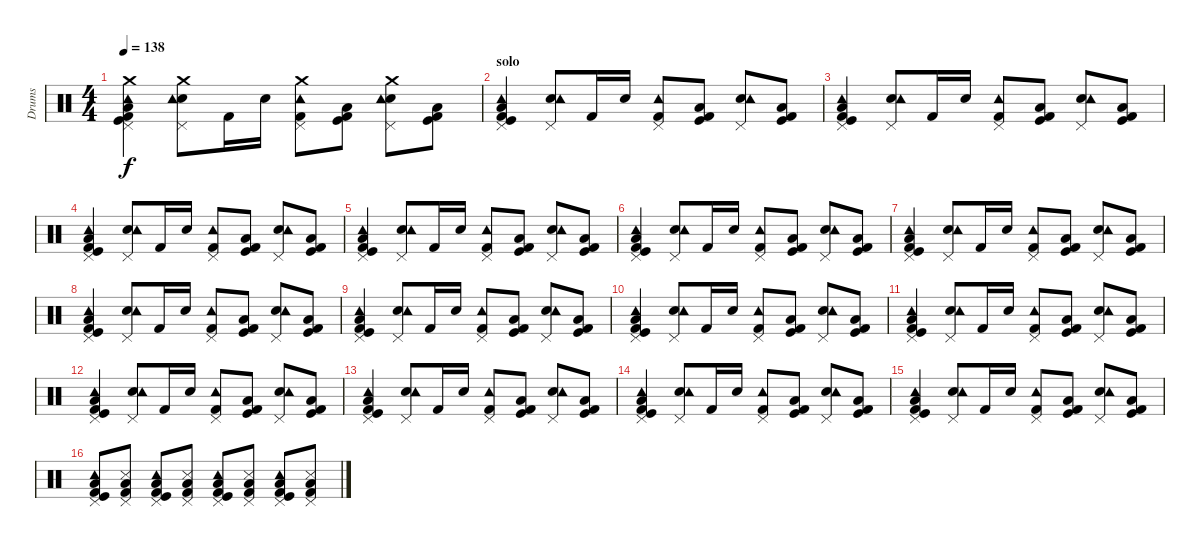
\track ("Drums" "Drums") {instrument percussion}
\staff {score}
\articulation defaults
\ts (4 4)
\tempo 138
\clef neutral
\ks c
("Crash medium (hit)" "Pedal Hi-Hat (hit)" "Kick (hit) 2" "Kick (hit)" "Low Floor Tom (hit)" "Tambourine (hit)").4{dy f} ("Crash medium (hit)" "Pedal Hi-Hat (hit)" "Electric Snare (hit)" "Tambourine (hit)").8 "Kick (hit) 2".16 "Electric Snare (hit)".16 ("Crash medium (hit)" "Pedal Hi-Hat (hit)" "Kick (hit) 2" "Tambourine (hit)").8 ("Kick (hit) 2" "Kick (hit)" "Low Floor Tom (hit)").8 ("Crash medium (hit)" "Pedal Hi-Hat (hit)" "Electric Snare (hit)" "Tambourine (hit)").8 ("Kick (hit) 2" "Low Floor Tom (hit)" "Kick (hit)").8 |
\section ("" "solo")
("Pedal Hi-Hat (hit)" "Kick (hit) 2" "Kick (hit)" "Low Floor Tom (hit)" "Tambourine (hit)").4 ("Pedal Hi-Hat (hit)" "Electric Snare (hit)" "Tambourine (hit)").8 "Kick (hit) 2".16 "Electric Snare (hit)".16 ("Pedal Hi-Hat (hit)" "Kick (hit) 2" "Tambourine (hit)").8 ("Kick (hit) 2" "Kick (hit)" "Low Floor Tom (hit)").8 ("Pedal Hi-Hat (hit)" "Electric Snare (hit)" "Tambourine (hit)").8 ("Kick (hit) 2" "Low Floor Tom (hit)" "Kick (hit)").8 |
("Pedal Hi-Hat (hit)" "Kick (hit) 2" "Kick (hit)" "Low Floor Tom (hit)" "Tambourine (hit)").4 ("Pedal Hi-Hat (hit)" "Electric Snare (hit)" "Tambourine (hit)").8 "Kick (hit) 2".16 "Electric Snare (hit)".16 ("Pedal Hi-Hat (hit)" "Kick (hit) 2" "Tambourine (hit)").8 ("Kick (hit) 2" "Kick (hit)" "Low Floor Tom (hit)").8 ("Pedal Hi-Hat (hit)" "Electric Snare (hit)" "Tambourine (hit)").8 ("Kick (hit) 2" "Low Floor Tom (hit)" "Kick (hit)").8 |
("Pedal Hi-Hat (hit)" "Kick (hit) 2" "Kick (hit)" "Low Floor Tom (hit)" "Tambourine (hit)").4 ("Pedal Hi-Hat (hit)" "Electric Snare (hit)" "Tambourine (hit)").8 "Kick (hit) 2".16 "Electric Snare (hit)".16 ("Pedal Hi-Hat (hit)" "Kick (hit) 2" "Tambourine (hit)").8 ("Kick (hit) 2" "Kick (hit)" "Low Floor Tom (hit)").8 ("Pedal Hi-Hat (hit)" "Electric Snare (hit)" "Tambourine (hit)").8 ("Kick (hit) 2" "Low Floor Tom (hit)" "Kick (hit)").8 |
("Pedal Hi-Hat (hit)" "Kick (hit) 2" "Kick (hit)" "Low Floor Tom (hit)" "Tambourine (hit)").4 ("Pedal Hi-Hat (hit)" "Electric Snare (hit)" "Tambourine (hit)").8 "Kick (hit) 2".16 "Electric Snare (hit)".16 ("Pedal Hi-Hat (hit)" "Kick (hit) 2" "Tambourine (hit)").8 ("Kick (hit) 2" "Kick (hit)" "Low Floor Tom (hit)").8 ("Pedal Hi-Hat (hit)" "Electric Snare (hit)" "Tambourine (hit)").8 ("Kick (hit) 2" "Low Floor Tom (hit)" "Kick (hit)").8 |
("Pedal Hi-Hat (hit)" "Kick (hit) 2" "Kick (hit)" "Low Floor Tom (hit)" "Tambourine (hit)").4 ("Pedal Hi-Hat (hit)" "Electric Snare (hit)" "Tambourine (hit)").8 "Kick (hit) 2".16 "Electric Snare (hit)".16 ("Pedal Hi-Hat (hit)" "Kick (hit) 2" "Tambourine (hit)").8 ("Kick (hit) 2" "Kick (hit)" "Low Floor Tom (hit)").8 ("Pedal Hi-Hat (hit)" "Electric Snare (hit)" "Tambourine (hit)").8 ("Kick (hit) 2" "Low Floor Tom (hit)" "Kick (hit)").8 |
("Pedal Hi-Hat (hit)" "Kick (hit) 2" "Kick (hit)" "Low Floor Tom (hit)" "Tambourine (hit)").4 ("Pedal Hi-Hat (hit)" "Electric Snare (hit)" "Tambourine (hit)").8 "Kick (hit) 2".16 "Electric Snare (hit)".16 ("Pedal Hi-Hat (hit)" "Kick (hit) 2" "Tambourine (hit)").8 ("Kick (hit) 2" "Kick (hit)" "Low Floor Tom (hit)").8 ("Pedal Hi-Hat (hit)" "Electric Snare (hit)" "Tambourine (hit)").8 ("Kick (hit) 2" "Low Floor Tom (hit)" "Kick (hit)").8 |
("Pedal Hi-Hat (hit)" "Kick (hit) 2" "Kick (hit)" "Low Floor Tom (hit)" "Tambourine (hit)").4 ("Pedal Hi-Hat (hit)" "Electric Snare (hit)" "Tambourine (hit)").8 "Kick (hit) 2".16 "Electric Snare (hit)".16 ("Pedal Hi-Hat (hit)" "Kick (hit) 2" "Tambourine (hit)").8 ("Kick (hit) 2" "Kick (hit)" "Low Floor Tom (hit)").8 ("Pedal Hi-Hat (hit)" "Electric Snare (hit)" "Tambourine (hit)").8 ("Kick (hit) 2" "Low Floor Tom (hit)" "Kick (hit)").8 |
("Pedal Hi-Hat (hit)" "Kick (hit) 2" "Kick (hit)" "Low Floor Tom (hit)" "Tambourine (hit)").4 ("Pedal Hi-Hat (hit)" "Electric Snare (hit)" "Tambourine (hit)").8 "Kick (hit) 2".16 "Electric Snare (hit)".16 ("Pedal Hi-Hat (hit)" "Kick (hit) 2" "Tambourine (hit)").8 ("Kick (hit) 2" "Kick (hit)" "Low Floor Tom (hit)").8 ("Pedal Hi-Hat (hit)" "Electric Snare (hit)" "Tambourine (hit)").8 ("Kick (hit) 2" "Low Floor Tom (hit)" "Kick (hit)").8 |
("Pedal Hi-Hat (hit)" "Kick (hit) 2" "Kick (hit)" "Low Floor Tom (hit)" "Tambourine (hit)").4 ("Pedal Hi-Hat (hit)" "Electric Snare (hit)" "Tambourine (hit)").8 "Kick (hit) 2".16 "Electric Snare (hit)".16 ("Pedal Hi-Hat (hit)" "Kick (hit) 2" "Tambourine (hit)").8 ("Kick (hit) 2" "Kick (hit)" "Low Floor Tom (hit)").8 ("Pedal Hi-Hat (hit)" "Electric Snare (hit)" "Tambourine (hit)").8 ("Kick (hit) 2" "Low Floor Tom (hit)" "Kick (hit)").8 |
("Pedal Hi-Hat (hit)" "Kick (hit) 2" "Kick (hit)" "Low Floor Tom (hit)" "Tambourine (hit)").4 ("Pedal Hi-Hat (hit)" "Electric Snare (hit)" "Tambourine (hit)").8 "Kick (hit) 2".16 "Electric Snare (hit)".16 ("Pedal Hi-Hat (hit)" "Kick (hit) 2" "Tambourine (hit)").8 ("Kick (hit) 2" "Kick (hit)" "Low Floor Tom (hit)").8 ("Pedal Hi-Hat (hit)" "Electric Snare (hit)" "Tambourine (hit)").8 ("Kick (hit) 2" "Low Floor Tom (hit)" "Kick (hit)").8 |
("Pedal Hi-Hat (hit)" "Kick (hit) 2" "Kick (hit)" "Low Floor Tom (hit)" "Tambourine (hit)").4 ("Pedal Hi-Hat (hit)" "Electric Snare (hit)" "Tambourine (hit)").8 "Kick (hit) 2".16 "Electric Snare (hit)".16 ("Pedal Hi-Hat (hit)" "Kick (hit) 2" "Tambourine (hit)").8 ("Kick (hit) 2" "Kick (hit)" "Low Floor Tom (hit)").8 ("Pedal Hi-Hat (hit)" "Electric Snare (hit)" "Tambourine (hit)").8 ("Kick (hit) 2" "Low Floor Tom (hit)" "Kick (hit)").8 |
("Pedal Hi-Hat (hit)" "Kick (hit) 2" "Kick (hit)" "Low Floor Tom (hit)" "Tambourine (hit)").4 ("Pedal Hi-Hat (hit)" "Electric Snare (hit)" "Tambourine (hit)").8 "Kick (hit) 2".16 "Electric Snare (hit)".16 ("Pedal Hi-Hat (hit)" "Kick (hit) 2" "Tambourine (hit)").8 ("Kick (hit) 2" "Kick (hit)" "Low Floor Tom (hit)").8 ("Pedal Hi-Hat (hit)" "Electric Snare (hit)" "Tambourine (hit)").8 ("Kick (hit) 2" "Low Floor Tom (hit)" "Kick (hit)").8 |
("Pedal Hi-Hat (hit)" "Kick (hit) 2" "Kick (hit)" "Low Floor Tom (hit)" "Tambourine (hit)").4 ("Pedal Hi-Hat (hit)" "Electric Snare (hit)" "Tambourine (hit)").8 "Kick (hit) 2".16 "Electric Snare (hit)".16 ("Pedal Hi-Hat (hit)" "Kick (hit) 2" "Tambourine (hit)").8 ("Kick (hit) 2" "Kick (hit)" "Low Floor Tom (hit)").8 ("Pedal Hi-Hat (hit)" "Electric Snare (hit)" "Tambourine (hit)").8 ("Kick (hit) 2" "Low Floor Tom (hit)" "Kick (hit)").8 |
("Pedal Hi-Hat (hit)" "Kick (hit) 2" "Kick (hit)" "Low Floor Tom (hit)" "Tambourine (hit)").4 ("Pedal Hi-Hat (hit)" "Electric Snare (hit)" "Tambourine (hit)").8 "Kick (hit) 2".16 "Electric Snare (hit)".16 ("Pedal Hi-Hat (hit)" "Kick (hit) 2" "Tambourine (hit)").8 ("Kick (hit) 2" "Kick (hit)" "Low Floor Tom (hit)").8 ("Pedal Hi-Hat (hit)" "Electric Snare (hit)" "Tambourine (hit)").8 ("Kick (hit) 2" "Low Floor Tom (hit)" "Kick (hit)").8 |
("Pedal Hi-Hat (hit)" "Low Tom (hit)" "Kick (hit) 2" "Kick (hit)" "Tambourine (hit)").8 ("Pedal Hi-Hat (hit)" "Low Tom (hit)" "Kick (hit) 2" "Snare (side stick) 3").8 ("Pedal Hi-Hat (hit)" "Low Tom (hit)" "Kick (hit) 2" "Kick (hit)" "Tambourine (hit)").8 ("Pedal Hi-Hat (hit)" "Low Tom (hit)" "Kick (hit) 2" "Snare (side stick) 3").8 ("Pedal Hi-Hat (hit)" "Low Tom (hit)" "Kick (hit) 2" "Kick (hit)" "Tambourine (hit)").8 ("Pedal Hi-Hat (hit)" "Low Tom (hit)" "Kick (hit) 2" "Snare (side stick) 3").8 ("Pedal Hi-Hat (hit)" "Low Tom (hit)" "Kick (hit) 2" "Kick (hit)" "Tambourine (hit)").8 ("Pedal Hi-Hat (hit)" "Low Tom (hit)" "Kick (hit) 2" "Snare (side stick) 3").8
